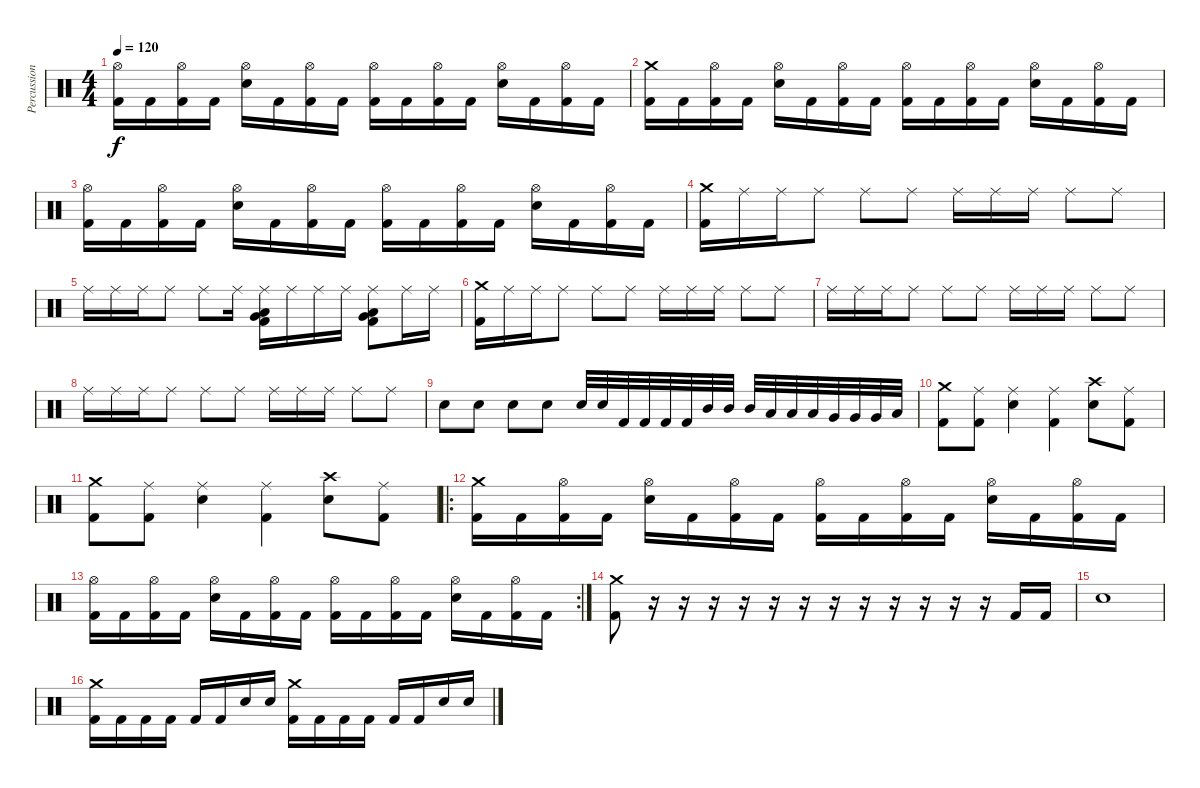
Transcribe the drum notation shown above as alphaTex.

\track ("Percussion" "Percussion") {instrument percussion}
\staff {score}
\articulation defaults
\ts (4 4)
\tempo 120
\clef neutral
\ks c
("Hi-Hat (open)" "Kick (hit) 2").16{dy f} "Kick (hit) 2".16 ("Hi-Hat (open)" "Kick (hit) 2").16 "Kick (hit) 2".16 ("Hi-Hat (open)" "Snare (hit) 2").16 "Kick (hit) 2".16 ("Hi-Hat (open)" "Kick (hit) 2").16 "Kick (hit) 2".16 ("Hi-Hat (open)" "Kick (hit) 2").16 "Kick (hit) 2".16 ("Hi-Hat (open)" "Kick (hit) 2").16 "Kick (hit) 2".16 ("Hi-Hat (open)" "Snare (hit) 2").16 "Kick (hit) 2".16 ("Hi-Hat (open)" "Kick (hit) 2").16 "Kick (hit) 2".16 |
("Crash medium (hit)" "Kick (hit) 2").16 "Kick (hit) 2".16 ("Hi-Hat (open)" "Kick (hit) 2").16 "Kick (hit) 2".16 ("Hi-Hat (open)" "Snare (hit) 2").16 "Kick (hit) 2".16 ("Hi-Hat (open)" "Kick (hit) 2").16 "Kick (hit) 2".16 ("Hi-Hat (open)" "Kick (hit) 2").16 "Kick (hit) 2".16 ("Hi-Hat (open)" "Kick (hit) 2").16 "Kick (hit) 2".16 ("Hi-Hat (open)" "Snare (hit) 2").16 "Kick (hit) 2".16 ("Hi-Hat (open)" "Kick (hit) 2").16 "Kick (hit) 2".16 |
("Hi-Hat (open)" "Kick (hit) 2").16 "Kick (hit) 2".16 ("Hi-Hat (open)" "Kick (hit) 2").16 "Kick (hit) 2".16 ("Hi-Hat (open)" "Snare (hit) 2").16 "Kick (hit) 2".16 ("Hi-Hat (open)" "Kick (hit) 2").16 "Kick (hit) 2".16 ("Hi-Hat (open)" "Kick (hit) 2").16 "Kick (hit) 2".16 ("Hi-Hat (open)" "Kick (hit) 2").16 "Kick (hit) 2".16 ("Hi-Hat (open)" "Snare (hit) 2").16 "Kick (hit) 2".16 ("Hi-Hat (open)" "Kick (hit) 2").16 "Kick (hit) 2".16 |
("Crash medium (hit)" "Kick (hit) 2").16 "Ride (middle)".16 "Ride (middle)".16 "Ride (middle)".8 "Ride (middle)".8 "Ride (middle)".8 "Ride (middle)".16 "Ride (middle)".16 "Ride (middle)".16 "Ride (middle)".8 "Ride (middle)".8 |
"Ride (middle)".16 "Ride (middle)".16 "Ride (middle)".16 "Ride (middle)".8 "Ride (middle)".8 "Ride (middle)".16 ("Very Low Tom (hit)" "Low Floor Tom (hit)" "Ride (middle)" "Kick (hit) 2").16 "Ride (middle)".16 "Ride (middle)".16 "Ride (middle)".16 ("Very Low Tom (hit)" "Low Floor Tom (hit)" "Ride (middle)" "Kick (hit) 2").8 "Ride (middle)".16 "Ride (middle)".16 |
("Crash medium (hit)" "Kick (hit) 2").16 "Ride (middle)".16 "Ride (middle)".16 "Ride (middle)".8 "Ride (middle)".8 "Ride (middle)".8 "Ride (middle)".16 "Ride (middle)".16 "Ride (middle)".16 "Ride (middle)".8 "Ride (middle)".8 |
"Ride (middle)".16 "Ride (middle)".16 "Ride (middle)".16 "Ride (middle)".8 "Ride (middle)".8 "Ride (middle)".8 "Ride (middle)".16 "Ride (middle)".16 "Ride (middle)".16 "Ride (middle)".8 "Ride (middle)".8 |
"Ride (middle)".16 "Ride (middle)".16 "Ride (middle)".16 "Ride (middle)".8 "Ride (middle)".8 "Ride (middle)".8 "Ride (middle)".16 "Ride (middle)".16 "Ride (middle)".16 "Ride (middle)".8 "Ride (middle)".8 |
"Snare (hit) 2".8 "Snare (hit) 2".8 "Snare (hit) 2".8 "Snare (hit) 2".8 "Snare (hit) 2".32 "Snare (hit) 2".32 "Kick (hit) 2".32 "Kick (hit) 2".32 "Kick (hit) 2".32 "Kick (hit) 2".32 "Mid Tom (hit)".32 "Mid Tom (hit)".32 "Mid Tom (hit)".32 "Low Tom (hit)".32 "Low Tom (hit)".32 "Low Tom (hit)".32 "Very Low Tom (hit)".32 "Very Low Tom (hit)".32 "Very Low Tom (hit)".32 "Low Floor Tom (hit)".32 |
("Crash medium (hit)" "Kick (hit) 2").8 ("Ride (middle)" "Kick (hit) 2").8 ("Ride (middle)" "Snare (hit) 2").4 ("Ride (middle)" "Kick (hit) 2").4 ("Crash high (hit)" "Snare (hit) 2").8 ("Ride (middle)" "Kick (hit) 2").8 |
("Crash medium (hit)" "Kick (hit) 2").8 ("Ride (middle)" "Kick (hit) 2").8 ("Ride (middle)" "Snare (hit) 2").4 ("Ride (middle)" "Kick (hit) 2").4 ("Crash high (hit)" "Snare (hit) 2").8 ("Ride (middle)" "Kick (hit) 2").8 |
\ro
("Crash medium (hit)" "Kick (hit) 2").16 "Kick (hit) 2".16 ("Hi-Hat (open)" "Kick (hit) 2").16 "Kick (hit) 2".16 ("Hi-Hat (open)" "Snare (hit) 2").16 "Kick (hit) 2".16 ("Hi-Hat (open)" "Kick (hit) 2").16 "Kick (hit) 2".16 ("Hi-Hat (open)" "Kick (hit) 2").16 "Kick (hit) 2".16 ("Hi-Hat (open)" "Kick (hit) 2").16 "Kick (hit) 2".16 ("Hi-Hat (open)" "Snare (hit) 2").16 "Kick (hit) 2".16 ("Hi-Hat (open)" "Kick (hit) 2").16 "Kick (hit) 2".16 |
\rc 2
("Hi-Hat (open)" "Kick (hit) 2").16 "Kick (hit) 2".16 ("Hi-Hat (open)" "Kick (hit) 2").16 "Kick (hit) 2".16 ("Hi-Hat (open)" "Snare (hit) 2").16 "Kick (hit) 2".16 ("Hi-Hat (open)" "Kick (hit) 2").16 "Kick (hit) 2".16 ("Hi-Hat (open)" "Kick (hit) 2").16 "Kick (hit) 2".16 ("Hi-Hat (open)" "Kick (hit) 2").16 "Kick (hit) 2".16 ("Hi-Hat (open)" "Snare (hit) 2").16 "Kick (hit) 2".16 ("Hi-Hat (open)" "Kick (hit) 2").16 "Kick (hit) 2".16 |
("Crash medium (hit)" "Kick (hit) 2").8 r.16 r.16 r.16 r.16 r.16 r.16 r.16 r.16 r.16 r.16 r.16 r.16 "Kick (hit) 2".16 "Kick (hit) 2".16 |
"Snare (hit) 2".1 |
("Crash medium (hit)" "Kick (hit) 2").16 "Kick (hit) 2".16 "Kick (hit) 2".16 "Kick (hit) 2".16 "Kick (hit) 2".16 "Kick (hit) 2".16 "Snare (hit) 2".16 "Snare (hit) 2".16 ("Crash medium (hit)" "Kick (hit) 2").16 "Kick (hit) 2".16 "Kick (hit) 2".16 "Kick (hit) 2".16 "Kick (hit) 2".16 "Kick (hit) 2".16 "Snare (hit) 2".16 "Snare (hit) 2".16
